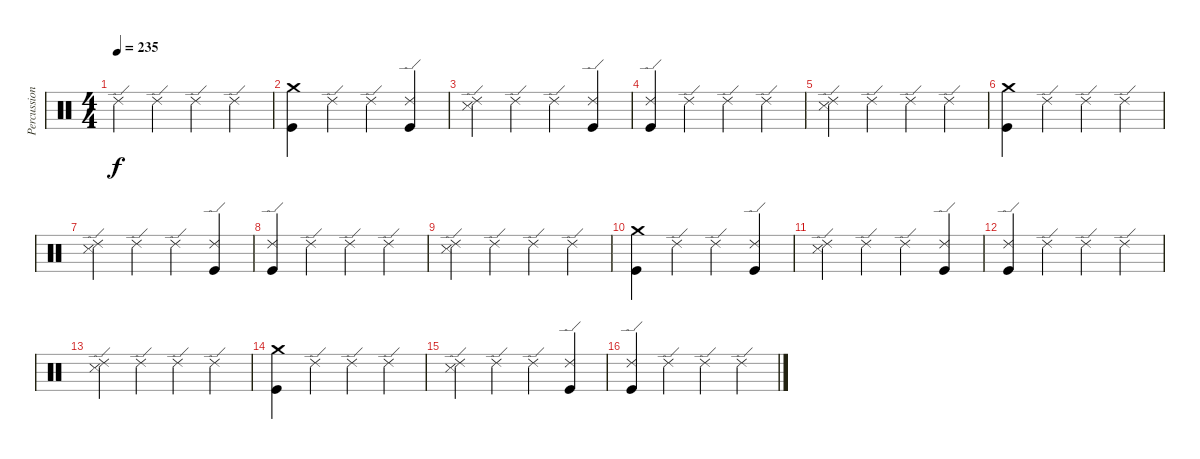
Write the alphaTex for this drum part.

\track ("Percussion" "Percussion") {instrument percussion}
\staff {score}
\articulation defaults
\ts (4 4)
\tempo 235
\clef neutral
\ks c "Ride (edge) 2".4{dy f} "Ride (edge) 2".4 "Ride (edge) 2".4 "Ride (edge) 2".4
|
("Kick (hit)" "Crash medium (hit)").4 "Ride (edge) 2".4 "Ride (edge) 2".4 ("Kick (hit)" "Ride (edge) 2").4 |
("Snare (side stick) 3" "Ride (edge) 2").4 "Ride (edge) 2".4 "Ride (edge) 2".4 ("Kick (hit)" "Ride (edge) 2").4 |
("Kick (hit)" "Ride (edge) 2").4 "Ride (edge) 2".4 "Ride (edge) 2".4 "Ride (edge) 2".4 |
("Snare (side stick) 3" "Ride (edge) 2").4 "Ride (edge) 2".4 "Ride (edge) 2".4 "Ride (edge) 2".4 |
("Kick (hit)" "Crash medium (hit)").4 "Ride (edge) 2".4 "Ride (edge) 2".4 "Ride (edge) 2".4 |
("Snare (side stick) 3" "Ride (edge) 2").4 "Ride (edge) 2".4 "Ride (edge) 2".4 ("Kick (hit)" "Ride (edge) 2").4 |
("Kick (hit)" "Ride (edge) 2").4 "Ride (edge) 2".4 "Ride (edge) 2".4 "Ride (edge) 2".4 |
("Snare (side stick) 3" "Ride (edge) 2").4 "Ride (edge) 2".4 "Ride (edge) 2".4 "Ride (edge) 2".4 |
("Kick (hit)" "Crash medium (hit)").4 "Ride (edge) 2".4 "Ride (edge) 2".4 ("Kick (hit)" "Ride (edge) 2").4 |
("Snare (side stick) 3" "Ride (edge) 2").4 "Ride (edge) 2".4 "Ride (edge) 2".4 ("Kick (hit)" "Ride (edge) 2").4 |
("Kick (hit)" "Ride (edge) 2").4 "Ride (edge) 2".4 "Ride (edge) 2".4 "Ride (edge) 2".4 |
("Snare (side stick) 3" "Ride (edge) 2").4 "Ride (edge) 2".4 "Ride (edge) 2".4 "Ride (edge) 2".4 |
("Kick (hit)" "Crash medium (hit)").4 "Ride (edge) 2".4 "Ride (edge) 2".4 "Ride (edge) 2".4 |
("Snare (side stick) 3" "Ride (edge) 2").4 "Ride (edge) 2".4 "Ride (edge) 2".4 ("Kick (hit)" "Ride (edge) 2").4 |
("Kick (hit)" "Ride (edge) 2").4 "Ride (edge) 2".4 "Ride (edge) 2".4 "Ride (edge) 2".4
